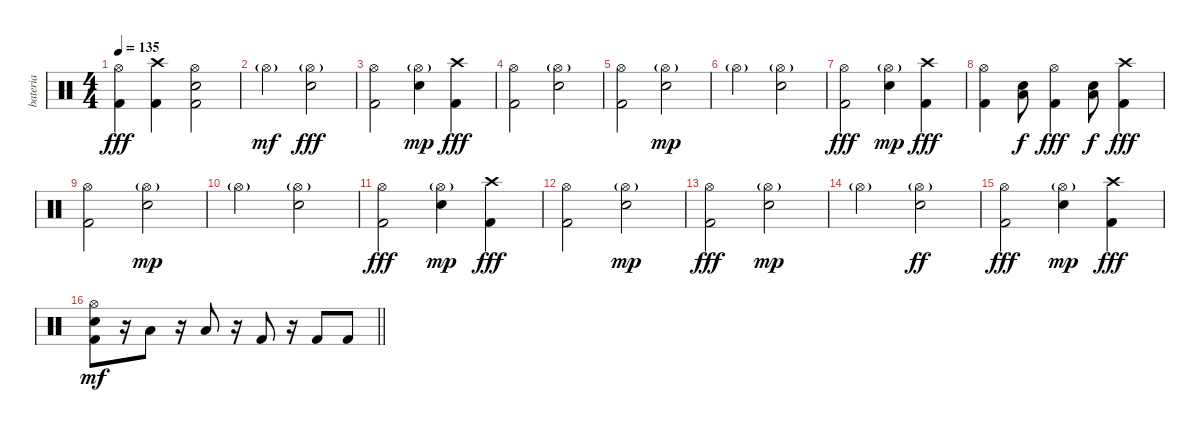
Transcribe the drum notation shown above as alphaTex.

\track ("bateria" "bateria") {instrument percussion}
\staff {score}
\articulation defaults
\ts (4 4)
\tempo 135
\clef neutral
\ks c
("Hi-Hat (open)" "Kick (hit) 2").4{dy fff} ("Crash high (hit)" "Kick (hit) 2").4 ("Hi-Hat (open)" "Snare (hit) 2" "Kick (hit) 2").2 |
"Hi-Hat (open)"{g}.2{dy mf} ("Hi-Hat (open)"{g} "Snare (hit) 2").2{dy fff} |
("Hi-Hat (open)" "Kick (hit) 2").2 ("Hi-Hat (open)"{g} "Snare (hit) 2").4{dy mp} ("Crash high (hit)" "Kick (hit) 2").4{dy fff} |
("Hi-Hat (open)" "Kick (hit) 2").2 ("Hi-Hat (open)"{g} "Snare (hit) 2").2 |
("Hi-Hat (open)" "Kick (hit) 2").2 ("Hi-Hat (open)"{g} "Snare (hit) 2").2{dy mp} |
"Hi-Hat (open)"{g}.2 ("Hi-Hat (open)"{g} "Snare (hit) 2").2 |
("Hi-Hat (open)" "Kick (hit) 2").2{dy fff} ("Hi-Hat (open)"{g} "Snare (hit) 2").4{dy mp} ("Crash high (hit)" "Kick (hit) 2").4{dy fff} |
("Hi-Hat (open)" "Kick (hit) 2").4 ("Low Floor Tom (hit)" "Snare (hit) 2").8{dy f} ("Hi-Hat (open)" "Kick (hit) 2").4{dy fff} ("Low Floor Tom (hit)" "Snare (hit) 2").8{dy f} ("Crash high (hit)" "Kick (hit) 2").4{dy fff} |
("Hi-Hat (open)" "Kick (hit) 2").2 ("Hi-Hat (open)"{g} "Snare (hit) 2").2{dy mp} |
"Hi-Hat (open)"{g}.2 ("Hi-Hat (open)"{g} "Snare (hit) 2").2 |
("Hi-Hat (open)" "Kick (hit) 2").2{dy fff} ("Hi-Hat (open)"{g} "Snare (hit) 2").4{dy mp} ("Crash high (hit)" "Kick (hit) 2").4{dy fff} |
("Hi-Hat (open)" "Kick (hit) 2").2 ("Hi-Hat (open)"{g} "Snare (hit) 2").2{dy mp} |
("Hi-Hat (open)" "Kick (hit) 2").2{dy fff} ("Hi-Hat (open)"{g} "Snare (hit) 2").2{dy mp} |
"Hi-Hat (open)"{g}.2 ("Hi-Hat (open)"{g} "Snare (hit) 2").2{dy ff} |
("Hi-Hat (open)" "Kick (hit) 2").2{dy fff} ("Hi-Hat (open)"{g} "Snare (hit) 2").4{dy mp} ("Crash high (hit)" "Kick (hit) 2").4{dy fff} |
\barLineRight lightlight
("Hi-Hat (open)" "Snare (hit) 2" "Kick (hit) 2").8{dy mf} r.16 "Low Floor Tom (hit)".8 r.16 "Low Floor Tom (hit)".8 r.16 "Kick (hit) 2".8 r.16 "Kick (hit) 2".8 "Kick (hit) 2".8
